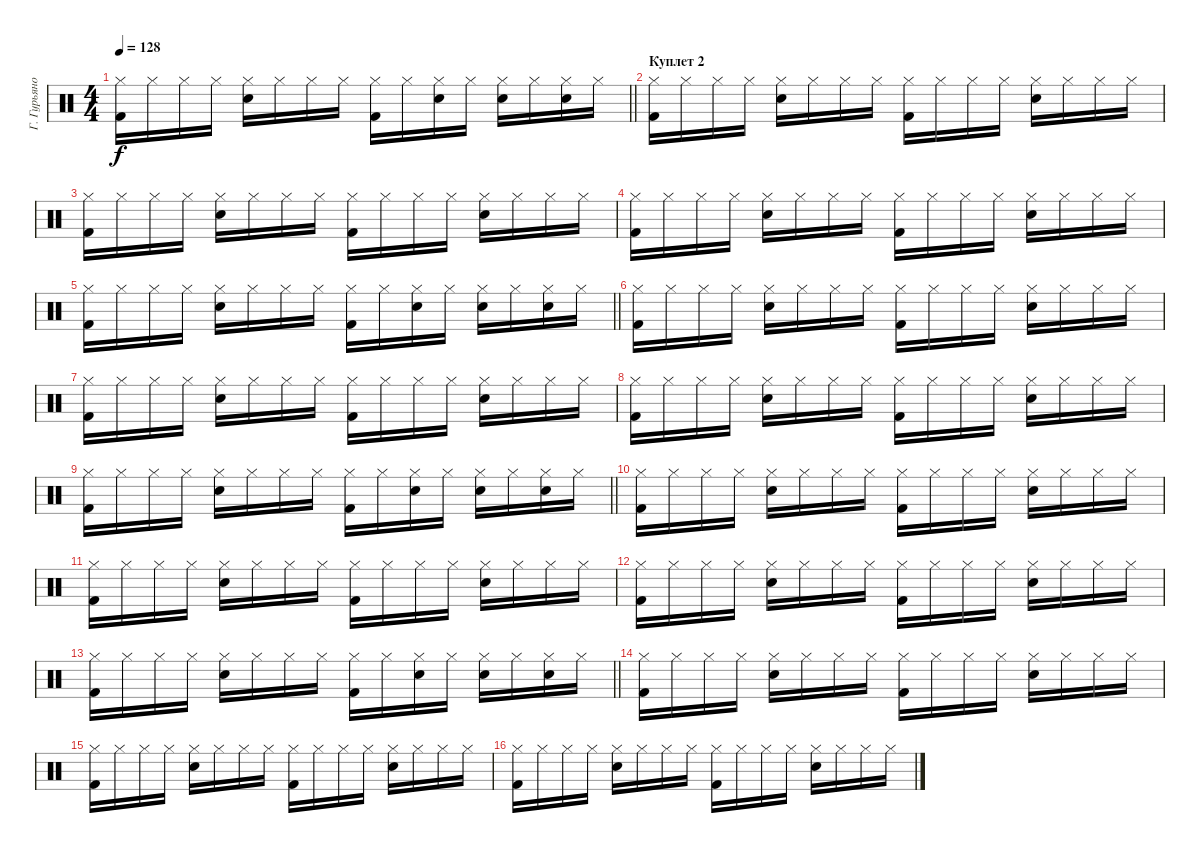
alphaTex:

\track ("Г. Гурьянов" "Г. Гурьяно") {instrument percussion}
\staff
\articulation defaults
\ts (4 4)
\tempo 128
\clef neutral
\barLineRight lightlight
\ks c
("Hi-Hat (closed)" "Kick (hit) 2").16{dy f} "Hi-Hat (closed)".16 "Hi-Hat (closed)".16 "Hi-Hat (closed)".16 ("Hi-Hat (closed)" "Snare (hit) 2").16 "Hi-Hat (closed)".16 "Hi-Hat (closed)".16 "Hi-Hat (closed)".16 ("Hi-Hat (closed)" "Kick (hit) 2").16 "Hi-Hat (closed)".16 ("Hi-Hat (closed)" "Snare (hit) 2").16 "Hi-Hat (closed)".16 ("Hi-Hat (closed)" "Snare (hit) 2").16 "Hi-Hat (closed)".16 ("Hi-Hat (closed)" "Snare (hit) 2").16 "Hi-Hat (closed)".16 |
\section ("" "Куплет 2")
("Hi-Hat (closed)" "Kick (hit) 2").16 "Hi-Hat (closed)".16 "Hi-Hat (closed)".16 "Hi-Hat (closed)".16 ("Hi-Hat (closed)" "Snare (hit) 2").16 "Hi-Hat (closed)".16 "Hi-Hat (closed)".16 "Hi-Hat (closed)".16 ("Hi-Hat (closed)" "Kick (hit) 2").16 "Hi-Hat (closed)".16 "Hi-Hat (closed)".16 "Hi-Hat (closed)".16 ("Hi-Hat (closed)" "Snare (hit) 2").16 "Hi-Hat (closed)".16 "Hi-Hat (closed)".16 "Hi-Hat (closed)".16 |
("Hi-Hat (closed)" "Kick (hit) 2").16 "Hi-Hat (closed)".16 "Hi-Hat (closed)".16 "Hi-Hat (closed)".16 ("Hi-Hat (closed)" "Snare (hit) 2").16 "Hi-Hat (closed)".16 "Hi-Hat (closed)".16 "Hi-Hat (closed)".16 ("Hi-Hat (closed)" "Kick (hit) 2").16 "Hi-Hat (closed)".16 "Hi-Hat (closed)".16 "Hi-Hat (closed)".16 ("Hi-Hat (closed)" "Snare (hit) 2").16 "Hi-Hat (closed)".16 "Hi-Hat (closed)".16 "Hi-Hat (closed)".16 |
("Hi-Hat (closed)" "Kick (hit) 2").16 "Hi-Hat (closed)".16 "Hi-Hat (closed)".16 "Hi-Hat (closed)".16 ("Hi-Hat (closed)" "Snare (hit) 2").16 "Hi-Hat (closed)".16 "Hi-Hat (closed)".16 "Hi-Hat (closed)".16 ("Hi-Hat (closed)" "Kick (hit) 2").16 "Hi-Hat (closed)".16 "Hi-Hat (closed)".16 "Hi-Hat (closed)".16 ("Hi-Hat (closed)" "Snare (hit) 2").16 "Hi-Hat (closed)".16 "Hi-Hat (closed)".16 "Hi-Hat (closed)".16 |
\barLineRight lightlight
("Hi-Hat (closed)" "Kick (hit) 2").16 "Hi-Hat (closed)".16 "Hi-Hat (closed)".16 "Hi-Hat (closed)".16 ("Hi-Hat (closed)" "Snare (hit) 2").16 "Hi-Hat (closed)".16 "Hi-Hat (closed)".16 "Hi-Hat (closed)".16 ("Hi-Hat (closed)" "Kick (hit) 2").16 "Hi-Hat (closed)".16 ("Hi-Hat (closed)" "Snare (hit) 2").16 "Hi-Hat (closed)".16 ("Hi-Hat (closed)" "Snare (hit) 2").16 "Hi-Hat (closed)".16 ("Hi-Hat (closed)" "Snare (hit) 2").16 "Hi-Hat (closed)".16 |
("Hi-Hat (closed)" "Kick (hit) 2").16 "Hi-Hat (closed)".16 "Hi-Hat (closed)".16 "Hi-Hat (closed)".16 ("Hi-Hat (closed)" "Snare (hit) 2").16 "Hi-Hat (closed)".16 "Hi-Hat (closed)".16 "Hi-Hat (closed)".16 ("Hi-Hat (closed)" "Kick (hit) 2").16 "Hi-Hat (closed)".16 "Hi-Hat (closed)".16 "Hi-Hat (closed)".16 ("Hi-Hat (closed)" "Snare (hit) 2").16 "Hi-Hat (closed)".16 "Hi-Hat (closed)".16 "Hi-Hat (closed)".16 |
("Hi-Hat (closed)" "Kick (hit) 2").16 "Hi-Hat (closed)".16 "Hi-Hat (closed)".16 "Hi-Hat (closed)".16 ("Hi-Hat (closed)" "Snare (hit) 2").16 "Hi-Hat (closed)".16 "Hi-Hat (closed)".16 "Hi-Hat (closed)".16 ("Hi-Hat (closed)" "Kick (hit) 2").16 "Hi-Hat (closed)".16 "Hi-Hat (closed)".16 "Hi-Hat (closed)".16 ("Hi-Hat (closed)" "Snare (hit) 2").16 "Hi-Hat (closed)".16 "Hi-Hat (closed)".16 "Hi-Hat (closed)".16 |
("Hi-Hat (closed)" "Kick (hit) 2").16 "Hi-Hat (closed)".16 "Hi-Hat (closed)".16 "Hi-Hat (closed)".16 ("Hi-Hat (closed)" "Snare (hit) 2").16 "Hi-Hat (closed)".16 "Hi-Hat (closed)".16 "Hi-Hat (closed)".16 ("Hi-Hat (closed)" "Kick (hit) 2").16 "Hi-Hat (closed)".16 "Hi-Hat (closed)".16 "Hi-Hat (closed)".16 ("Hi-Hat (closed)" "Snare (hit) 2").16 "Hi-Hat (closed)".16 "Hi-Hat (closed)".16 "Hi-Hat (closed)".16 |
\barLineRight lightlight
("Hi-Hat (closed)" "Kick (hit) 2").16 "Hi-Hat (closed)".16 "Hi-Hat (closed)".16 "Hi-Hat (closed)".16 ("Hi-Hat (closed)" "Snare (hit) 2").16 "Hi-Hat (closed)".16 "Hi-Hat (closed)".16 "Hi-Hat (closed)".16 ("Hi-Hat (closed)" "Kick (hit) 2").16 "Hi-Hat (closed)".16 ("Hi-Hat (closed)" "Snare (hit) 2").16 "Hi-Hat (closed)".16 ("Hi-Hat (closed)" "Snare (hit) 2").16 "Hi-Hat (closed)".16 ("Hi-Hat (closed)" "Snare (hit) 2").16 "Hi-Hat (closed)".16 |
("Hi-Hat (closed)" "Kick (hit) 2").16 "Hi-Hat (closed)".16 "Hi-Hat (closed)".16 "Hi-Hat (closed)".16 ("Hi-Hat (closed)" "Snare (hit) 2").16 "Hi-Hat (closed)".16 "Hi-Hat (closed)".16 "Hi-Hat (closed)".16 ("Hi-Hat (closed)" "Kick (hit) 2").16 "Hi-Hat (closed)".16 "Hi-Hat (closed)".16 "Hi-Hat (closed)".16 ("Hi-Hat (closed)" "Snare (hit) 2").16 "Hi-Hat (closed)".16 "Hi-Hat (closed)".16 "Hi-Hat (closed)".16 |
("Hi-Hat (closed)" "Kick (hit) 2").16 "Hi-Hat (closed)".16 "Hi-Hat (closed)".16 "Hi-Hat (closed)".16 ("Hi-Hat (closed)" "Snare (hit) 2").16 "Hi-Hat (closed)".16 "Hi-Hat (closed)".16 "Hi-Hat (closed)".16 ("Hi-Hat (closed)" "Kick (hit) 2").16 "Hi-Hat (closed)".16 "Hi-Hat (closed)".16 "Hi-Hat (closed)".16 ("Hi-Hat (closed)" "Snare (hit) 2").16 "Hi-Hat (closed)".16 "Hi-Hat (closed)".16 "Hi-Hat (closed)".16 |
("Hi-Hat (closed)" "Kick (hit) 2").16 "Hi-Hat (closed)".16 "Hi-Hat (closed)".16 "Hi-Hat (closed)".16 ("Hi-Hat (closed)" "Snare (hit) 2").16 "Hi-Hat (closed)".16 "Hi-Hat (closed)".16 "Hi-Hat (closed)".16 ("Hi-Hat (closed)" "Kick (hit) 2").16 "Hi-Hat (closed)".16 "Hi-Hat (closed)".16 "Hi-Hat (closed)".16 ("Hi-Hat (closed)" "Snare (hit) 2").16 "Hi-Hat (closed)".16 "Hi-Hat (closed)".16 "Hi-Hat (closed)".16 |
\barLineRight lightlight
("Hi-Hat (closed)" "Kick (hit) 2").16 "Hi-Hat (closed)".16 "Hi-Hat (closed)".16 "Hi-Hat (closed)".16 ("Hi-Hat (closed)" "Snare (hit) 2").16 "Hi-Hat (closed)".16 "Hi-Hat (closed)".16 "Hi-Hat (closed)".16 ("Hi-Hat (closed)" "Kick (hit) 2").16 "Hi-Hat (closed)".16 ("Hi-Hat (closed)" "Snare (hit) 2").16 "Hi-Hat (closed)".16 ("Hi-Hat (closed)" "Snare (hit) 2").16 "Hi-Hat (closed)".16 ("Hi-Hat (closed)" "Snare (hit) 2").16 "Hi-Hat (closed)".16 |
("Hi-Hat (closed)" "Kick (hit) 2").16 "Hi-Hat (closed)".16 "Hi-Hat (closed)".16 "Hi-Hat (closed)".16 ("Hi-Hat (closed)" "Snare (hit) 2").16 "Hi-Hat (closed)".16 "Hi-Hat (closed)".16 "Hi-Hat (closed)".16 ("Hi-Hat (closed)" "Kick (hit) 2").16 "Hi-Hat (closed)".16 "Hi-Hat (closed)".16 "Hi-Hat (closed)".16 ("Hi-Hat (closed)" "Snare (hit) 2").16 "Hi-Hat (closed)".16 "Hi-Hat (closed)".16 "Hi-Hat (closed)".16 |
("Hi-Hat (closed)" "Kick (hit) 2").16 "Hi-Hat (closed)".16 "Hi-Hat (closed)".16 "Hi-Hat (closed)".16 ("Hi-Hat (closed)" "Snare (hit) 2").16 "Hi-Hat (closed)".16 "Hi-Hat (closed)".16 "Hi-Hat (closed)".16 ("Hi-Hat (closed)" "Kick (hit) 2").16 "Hi-Hat (closed)".16 "Hi-Hat (closed)".16 "Hi-Hat (closed)".16 ("Hi-Hat (closed)" "Snare (hit) 2").16 "Hi-Hat (closed)".16 "Hi-Hat (closed)".16 "Hi-Hat (closed)".16 |
("Hi-Hat (closed)" "Kick (hit) 2").16 "Hi-Hat (closed)".16 "Hi-Hat (closed)".16 "Hi-Hat (closed)".16 ("Hi-Hat (closed)" "Snare (hit) 2").16 "Hi-Hat (closed)".16 "Hi-Hat (closed)".16 "Hi-Hat (closed)".16 ("Hi-Hat (closed)" "Kick (hit) 2").16 "Hi-Hat (closed)".16 "Hi-Hat (closed)".16 "Hi-Hat (closed)".16 ("Hi-Hat (closed)" "Snare (hit) 2").16 "Hi-Hat (closed)".16 "Hi-Hat (closed)".16 "Hi-Hat (closed)".16
